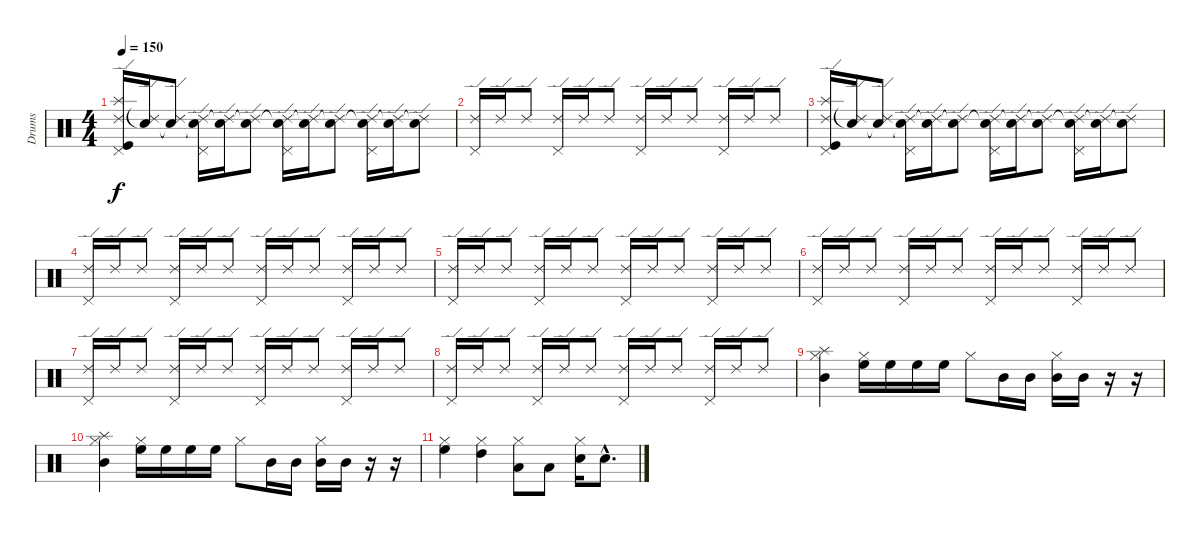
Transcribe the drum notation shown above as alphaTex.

\track ("Drums" "Drums") {instrument percussion}
\staff {score}
\articulation defaults
\ts (4 4)
\tempo 150
\clef neutral
\ks c
("Ride (edge) 2" "Splash (hit)" "Pedal Hi-Hat (hit)" "Kick (hit)").16{dy f} ("Ride (edge) 2" "Snare (hit)"{t}).16 ("Ride (edge) 2" "Snare (hit)"{t}).8 ("Ride (edge) 2" "Snare (hit)"{t} "Pedal Hi-Hat (hit)").16 ("Ride (edge) 2" "Snare (hit)"{t}).16 ("Ride (edge) 2" "Snare (hit)"{t}).8 ("Ride (edge) 2" "Snare (hit)"{t} "Pedal Hi-Hat (hit)").16 ("Ride (edge) 2" "Snare (hit)"{t}).16 ("Ride (edge) 2" "Snare (hit)"{t}).8 ("Ride (edge) 2" "Snare (hit)"{t} "Pedal Hi-Hat (hit)").16 ("Ride (edge) 2" "Snare (hit)"{t}).16 ("Ride (edge) 2" "Snare (hit)"{t}).8 |
("Ride (edge) 2" "Pedal Hi-Hat (hit)").16 "Ride (edge) 2".16 "Ride (edge) 2".8 ("Ride (edge) 2" "Pedal Hi-Hat (hit)").16 "Ride (edge) 2".16 "Ride (edge) 2".8 ("Ride (edge) 2" "Pedal Hi-Hat (hit)").16 "Ride (edge) 2".16 "Ride (edge) 2".8 ("Ride (edge) 2" "Pedal Hi-Hat (hit)").16 "Ride (edge) 2".16 "Ride (edge) 2".8 |
("Ride (edge) 2" "Splash (hit)" "Pedal Hi-Hat (hit)" "Kick (hit)").16 ("Ride (edge) 2" "Snare (hit)"{t}).16 ("Ride (edge) 2" "Snare (hit)"{t}).8 ("Ride (edge) 2" "Snare (hit)"{t} "Pedal Hi-Hat (hit)").16 ("Ride (edge) 2" "Snare (hit)"{t}).16 ("Ride (edge) 2" "Snare (hit)"{t}).8 ("Ride (edge) 2" "Snare (hit)"{t} "Pedal Hi-Hat (hit)").16 ("Ride (edge) 2" "Snare (hit)"{t}).16 ("Ride (edge) 2" "Snare (hit)"{t}).8 ("Ride (edge) 2" "Snare (hit)"{t} "Pedal Hi-Hat (hit)").16 ("Ride (edge) 2" "Snare (hit)"{t}).16 ("Ride (edge) 2" "Snare (hit)"{t}).8 |
("Ride (edge) 2" "Pedal Hi-Hat (hit)").16 "Ride (edge) 2".16 "Ride (edge) 2".8 ("Ride (edge) 2" "Pedal Hi-Hat (hit)").16 "Ride (edge) 2".16 "Ride (edge) 2".8 ("Ride (edge) 2" "Pedal Hi-Hat (hit)").16 "Ride (edge) 2".16 "Ride (edge) 2".8 ("Ride (edge) 2" "Pedal Hi-Hat (hit)").16 "Ride (edge) 2".16 "Ride (edge) 2".8 |
("Ride (edge) 2" "Pedal Hi-Hat (hit)").16 "Ride (edge) 2".16 "Ride (edge) 2".8 ("Ride (edge) 2" "Pedal Hi-Hat (hit)").16 "Ride (edge) 2".16 "Ride (edge) 2".8 ("Ride (edge) 2" "Pedal Hi-Hat (hit)").16 "Ride (edge) 2".16 "Ride (edge) 2".8 ("Ride (edge) 2" "Pedal Hi-Hat (hit)").16 "Ride (edge) 2".16 "Ride (edge) 2".8 |
("Ride (edge) 2" "Pedal Hi-Hat (hit)").16 "Ride (edge) 2".16 "Ride (edge) 2".8 ("Ride (edge) 2" "Pedal Hi-Hat (hit)").16 "Ride (edge) 2".16 "Ride (edge) 2".8 ("Ride (edge) 2" "Pedal Hi-Hat (hit)").16 "Ride (edge) 2".16 "Ride (edge) 2".8 ("Ride (edge) 2" "Pedal Hi-Hat (hit)").16 "Ride (edge) 2".16 "Ride (edge) 2".8 |
("Ride (edge) 2" "Pedal Hi-Hat (hit)").16 "Ride (edge) 2".16 "Ride (edge) 2".8 ("Ride (edge) 2" "Pedal Hi-Hat (hit)").16 "Ride (edge) 2".16 "Ride (edge) 2".8 ("Ride (edge) 2" "Pedal Hi-Hat (hit)").16 "Ride (edge) 2".16 "Ride (edge) 2".8 ("Ride (edge) 2" "Pedal Hi-Hat (hit)").16 "Ride (edge) 2".16 "Ride (edge) 2".8 |
("Ride (edge) 2" "Pedal Hi-Hat (hit)").16 "Ride (edge) 2".16 "Ride (edge) 2".8 ("Ride (edge) 2" "Pedal Hi-Hat (hit)").16 "Ride (edge) 2".16 "Ride (edge) 2".8 ("Ride (edge) 2" "Pedal Hi-Hat (hit)").16 "Ride (edge) 2".16 "Ride (edge) 2".8 ("Ride (edge) 2" "Pedal Hi-Hat (hit)").16 "Ride (edge) 2".16 "Ride (edge) 2".8 |
("Splash (hit)" "Mid Tom (hit)" "Hi-Hat (closed)").4 ("High Floor Tom (hit)" "Hi-Hat (closed)").16 "High Floor Tom (hit)".16 "High Floor Tom (hit)".16 "High Floor Tom (hit)".16 "Hi-Hat (closed)".8 "Mid Tom (hit)".16 "Mid Tom (hit)".16 ("Mid Tom (hit)" "Hi-Hat (closed)").16 "Mid Tom (hit)".16 r.16 r.16 |
("Splash (hit)" "Mid Tom (hit)" "Hi-Hat (closed)").4 ("High Floor Tom (hit)" "Hi-Hat (closed)").16 "High Floor Tom (hit)".16 "High Floor Tom (hit)".16 "High Floor Tom (hit)".16 "Hi-Hat (closed)".8 "Mid Tom (hit)".16 "Mid Tom (hit)".16 ("Mid Tom (hit)" "Hi-Hat (closed)").16 "Mid Tom (hit)".16 r.16 r.16 |
("High Floor Tom (hit)" "Hi-Hat (closed)").4 ("High Tom (hit)" "Hi-Hat (closed)").4 ("Low Tom (hit)" "Hi-Hat (closed)").8 "Low Tom (hit)".8 ("Snare (hit) 2" "Hi-Hat (closed)").16 "Snare (hit) 2"{hac}.8{d}
